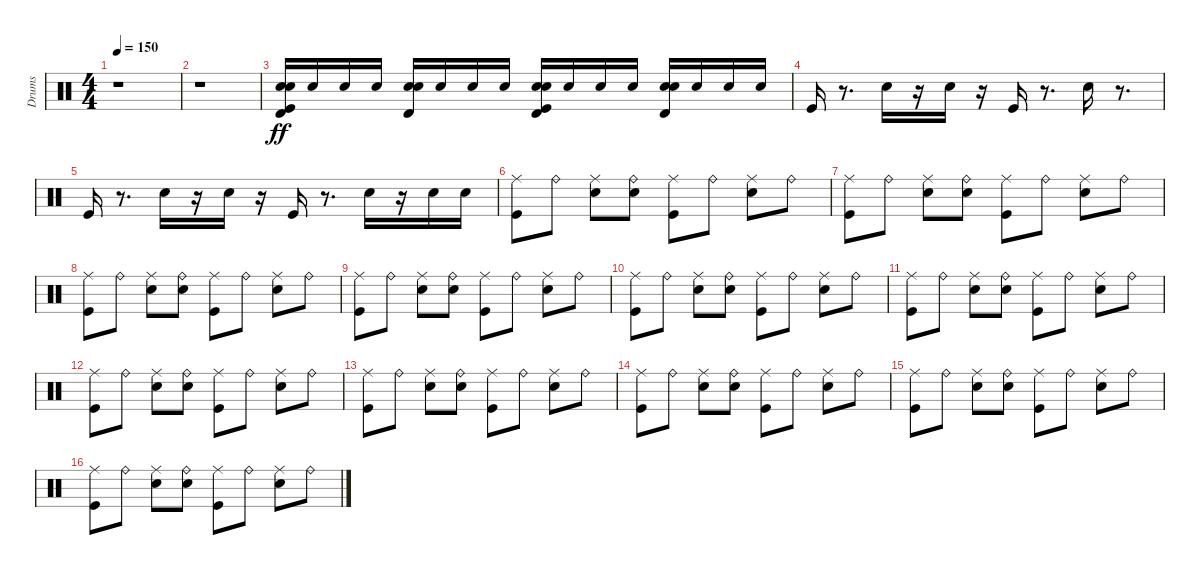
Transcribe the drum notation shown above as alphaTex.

\track ("Drums" "Drums") {instrument percussion}
\staff {score}
\articulation defaults
\ts (4 4)
\tempo 150
\clef neutral
\ks c
r.1{dy ff} |
r.1 |
("Kick (hit)" "Snare (hit) 2" "Electric Snare (hit)" "Timbale high (hit)").16{balance 3} "Electric Snare (hit)".16 "Electric Snare (hit)".16 "Electric Snare (hit)".16 ("Snare (hit) 2" "Electric Snare (hit)" "Timbale high (hit)").16 "Electric Snare (hit)".16 "Electric Snare (hit)".16 "Electric Snare (hit)".16 ("Kick (hit)" "Snare (hit) 2" "Electric Snare (hit)" "Timbale high (hit)").16 "Electric Snare (hit)".16 "Electric Snare (hit)".16 "Electric Snare (hit)".16 ("Snare (hit) 2" "Electric Snare (hit)" "Timbale high (hit)").16 "Electric Snare (hit)".16 "Electric Snare (hit)".16 "Electric Snare (hit)".16 |
"Kick (hit)".16 r.8{d} "Snare (hit) 2".16 r.16 "Snare (hit) 2".16 r.16 "Kick (hit)".16 r.8{d} "Snare (hit) 2".16 r.8{d} |
"Kick (hit)".16 r.8{d} "Snare (hit) 2".16 r.16 "Snare (hit) 2".16 r.16 "Kick (hit)".16 r.8{d} "Snare (hit) 2".16 r.16 "Snare (hit) 2".16 "Snare (hit) 2".16 |
("Kick (hit)" "Ride (middle)").8 "Ride (bell)".8 ("Snare (hit) 2" "Ride (middle)").8 ("Snare (hit) 2" "Ride (bell)").8 ("Kick (hit)" "Ride (middle)").8 "Ride (bell)".8 ("Snare (hit) 2" "Ride (middle)").8 "Ride (bell)".8 |
("Kick (hit)" "Ride (middle)").8 "Ride (bell)".8 ("Snare (hit) 2" "Ride (middle)").8 ("Snare (hit) 2" "Ride (bell)").8 ("Kick (hit)" "Ride (middle)").8 "Ride (bell)".8 ("Snare (hit) 2" "Ride (middle)").8 "Ride (bell)".8 |
("Kick (hit)" "Ride (middle)").8 "Ride (bell)".8 ("Snare (hit) 2" "Ride (middle)").8 ("Snare (hit) 2" "Ride (bell)").8 ("Kick (hit)" "Ride (middle)").8 "Ride (bell)".8 ("Snare (hit) 2" "Ride (middle)").8 "Ride (bell)".8 |
("Kick (hit)" "Ride (middle)").8 "Ride (bell)".8 ("Snare (hit) 2" "Ride (middle)").8 ("Snare (hit) 2" "Ride (bell)").8 ("Kick (hit)" "Ride (middle)").8 "Ride (bell)".8 ("Snare (hit) 2" "Ride (middle)").8 "Ride (bell)".8 |
("Kick (hit)" "Ride (middle)").8 "Ride (bell)".8 ("Snare (hit) 2" "Ride (middle)").8 ("Snare (hit) 2" "Ride (bell)").8 ("Kick (hit)" "Ride (middle)").8 "Ride (bell)".8 ("Snare (hit) 2" "Ride (middle)").8 "Ride (bell)".8 |
("Kick (hit)" "Ride (middle)").8 "Ride (bell)".8 ("Snare (hit) 2" "Ride (middle)").8 ("Snare (hit) 2" "Ride (bell)").8 ("Kick (hit)" "Ride (middle)").8 "Ride (bell)".8 ("Snare (hit) 2" "Ride (middle)").8 "Ride (bell)".8 |
("Kick (hit)" "Ride (middle)").8 "Ride (bell)".8 ("Snare (hit) 2" "Ride (middle)").8 ("Snare (hit) 2" "Ride (bell)").8 ("Kick (hit)" "Ride (middle)").8 "Ride (bell)".8 ("Snare (hit) 2" "Ride (middle)").8 "Ride (bell)".8 |
("Kick (hit)" "Ride (middle)").8 "Ride (bell)".8 ("Snare (hit) 2" "Ride (middle)").8 ("Snare (hit) 2" "Ride (bell)").8 ("Kick (hit)" "Ride (middle)").8 "Ride (bell)".8 ("Snare (hit) 2" "Ride (middle)").8 "Ride (bell)".8 |
("Kick (hit)" "Ride (middle)").8 "Ride (bell)".8 ("Snare (hit) 2" "Ride (middle)").8 ("Snare (hit) 2" "Ride (bell)").8 ("Kick (hit)" "Ride (middle)").8 "Ride (bell)".8 ("Snare (hit) 2" "Ride (middle)").8 "Ride (bell)".8 |
("Kick (hit)" "Ride (middle)").8 "Ride (bell)".8 ("Snare (hit) 2" "Ride (middle)").8 ("Snare (hit) 2" "Ride (bell)").8 ("Kick (hit)" "Ride (middle)").8 "Ride (bell)".8 ("Snare (hit) 2" "Ride (middle)").8 "Ride (bell)".8 |
("Kick (hit)" "Ride (middle)").8 "Ride (bell)".8 ("Snare (hit) 2" "Ride (middle)").8 ("Snare (hit) 2" "Ride (bell)").8 ("Kick (hit)" "Ride (middle)").8 "Ride (bell)".8 ("Snare (hit) 2" "Ride (middle)").8 "Ride (bell)".8
